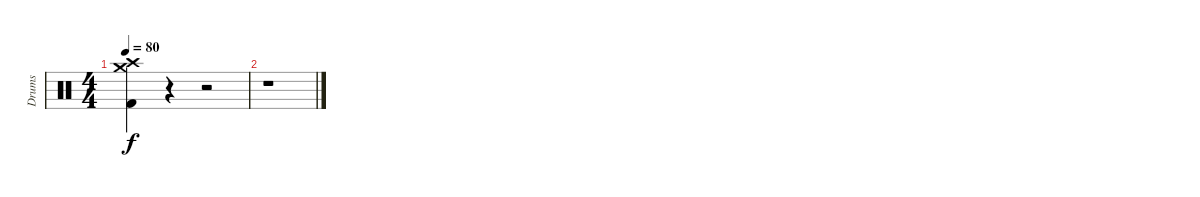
\track ("Drums" "Drums") {instrument percussion}
\staff {score}
\articulation defaults
\ts (4 4)
\tempo 80
\clef neutral
\ks c
("Kick (hit) 2" "Crash medium (hit)" "Crash high (hit)").4{dy f} r.4 r.2 |
r.1
